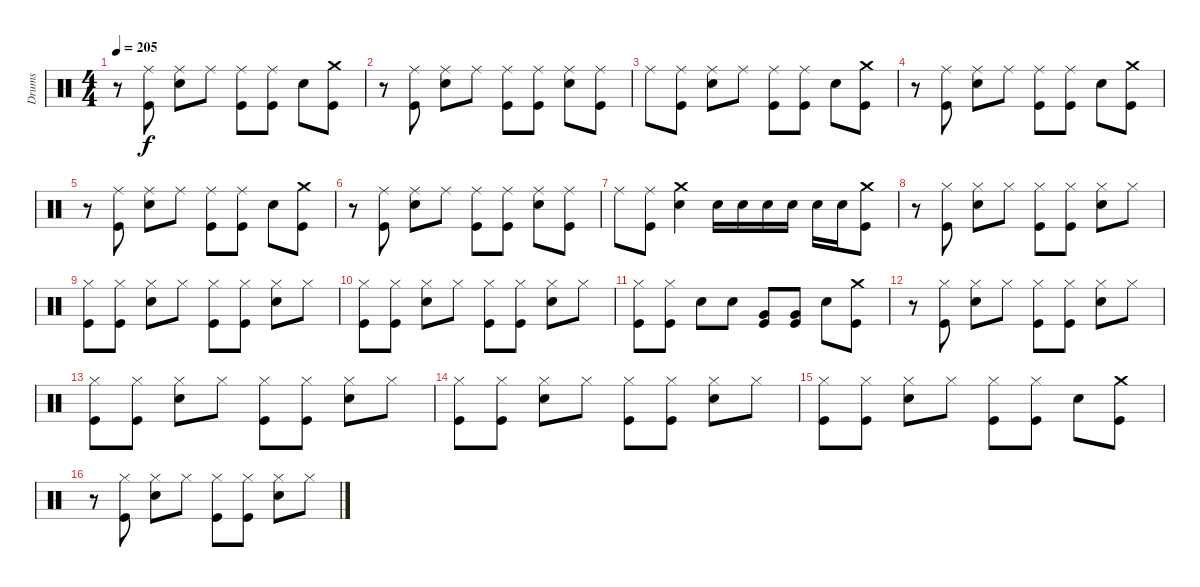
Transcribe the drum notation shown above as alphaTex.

\track ("Drums" "Drums") {instrument percussion}
\staff {score}
\articulation defaults
\ts (4 4)
\tempo 205
\clef neutral
\ks c
r.8{dy f} ("Ride (middle)" "Kick (hit)").8 ("Ride (middle)" "Electric Snare (hit)").8 "Ride (middle)".8 ("Ride (middle)" "Kick (hit)").8 ("Ride (middle)" "Kick (hit)").8 "Electric Snare (hit)".8 ("Crash medium (hit)" "Kick (hit)").8 |
r.8 ("Ride (middle)" "Kick (hit)").8 ("Ride (middle)" "Electric Snare (hit)").8 "Ride (middle)".8 ("Ride (middle)" "Kick (hit)").8 ("Ride (middle)" "Kick (hit)").8 ("Ride (middle)" "Electric Snare (hit)").8 ("Ride (middle)" "Kick (hit)").8 |
"Ride (middle)".8 ("Ride (middle)" "Kick (hit)").8 ("Ride (middle)" "Electric Snare (hit)").8 "Ride (middle)".8 ("Ride (middle)" "Kick (hit)").8 ("Ride (middle)" "Kick (hit)").8 "Electric Snare (hit)".8 ("Crash medium (hit)" "Kick (hit)").8 |
r.8 ("Ride (middle)" "Kick (hit)").8 ("Ride (middle)" "Electric Snare (hit)").8 "Ride (middle)".8 ("Ride (middle)" "Kick (hit)").8 ("Ride (middle)" "Kick (hit)").8 "Electric Snare (hit)".8 ("Crash medium (hit)" "Kick (hit)").8 |
r.8 ("Ride (middle)" "Kick (hit)").8 ("Ride (middle)" "Electric Snare (hit)").8 "Ride (middle)".8 ("Ride (middle)" "Kick (hit)").8 ("Ride (middle)" "Kick (hit)").8 "Electric Snare (hit)".8 ("Crash medium (hit)" "Kick (hit)").8 |
r.8 ("Ride (middle)" "Kick (hit)").8 ("Ride (middle)" "Electric Snare (hit)").8 "Ride (middle)".8 ("Ride (middle)" "Kick (hit)").8 ("Ride (middle)" "Kick (hit)").8 ("Ride (middle)" "Electric Snare (hit)").8 ("Ride (middle)" "Kick (hit)").8 |
"Ride (middle)".8 ("Ride (middle)" "Kick (hit)").8 ("Crash medium (hit)" "Electric Snare (hit)").4 "Electric Snare (hit)".16 "Electric Snare (hit)".16 "Electric Snare (hit)".16 "Electric Snare (hit)".16 "Electric Snare (hit)".16 "Electric Snare (hit)".16 ("Crash medium (hit)" "Kick (hit)").8 |
r.8 ("Hi-Hat (closed)" "Kick (hit)").8 ("Hi-Hat (closed)" "Electric Snare (hit)").8 "Hi-Hat (closed)".8 ("Hi-Hat (closed)" "Kick (hit)").8 ("Hi-Hat (closed)" "Kick (hit)").8 ("Hi-Hat (closed)" "Electric Snare (hit)").8 "Hi-Hat (closed)".8 |
("Hi-Hat (closed)" "Kick (hit)").8 ("Hi-Hat (closed)" "Kick (hit)").8 ("Hi-Hat (closed)" "Electric Snare (hit)").8 "Hi-Hat (closed)".8 ("Hi-Hat (closed)" "Kick (hit)").8 ("Hi-Hat (closed)" "Kick (hit)").8 ("Hi-Hat (closed)" "Electric Snare (hit)").8 "Hi-Hat (closed)".8 |
("Hi-Hat (closed)" "Kick (hit)").8 ("Hi-Hat (closed)" "Kick (hit)").8 ("Hi-Hat (closed)" "Electric Snare (hit)").8 "Hi-Hat (closed)".8 ("Hi-Hat (closed)" "Kick (hit)").8 ("Hi-Hat (closed)" "Kick (hit)").8 ("Hi-Hat (closed)" "Electric Snare (hit)").8 "Hi-Hat (closed)".8 |
("Hi-Hat (closed)" "Kick (hit)").8 ("Hi-Hat (closed)" "Kick (hit)").8 "Electric Snare (hit)".8 "Electric Snare (hit)".8 ("Very Low Tom (hit)" "Kick (hit)").8 ("Very Low Tom (hit)" "Kick (hit)").8 "Electric Snare (hit)".8 ("Crash medium (hit)" "Kick (hit)").8 |
r.8 ("Hi-Hat (closed)" "Kick (hit)").8 ("Hi-Hat (closed)" "Electric Snare (hit)").8 "Hi-Hat (closed)".8 ("Hi-Hat (closed)" "Kick (hit)").8 ("Hi-Hat (closed)" "Kick (hit)").8 ("Hi-Hat (closed)" "Electric Snare (hit)").8 "Hi-Hat (closed)".8 |
("Hi-Hat (closed)" "Kick (hit)").8 ("Hi-Hat (closed)" "Kick (hit)").8 ("Hi-Hat (closed)" "Electric Snare (hit)").8 "Hi-Hat (closed)".8 ("Hi-Hat (closed)" "Kick (hit)").8 ("Hi-Hat (closed)" "Kick (hit)").8 ("Hi-Hat (closed)" "Electric Snare (hit)").8 "Hi-Hat (closed)".8 |
("Hi-Hat (closed)" "Kick (hit)").8 ("Hi-Hat (closed)" "Kick (hit)").8 ("Hi-Hat (closed)" "Electric Snare (hit)").8 "Hi-Hat (closed)".8 ("Hi-Hat (closed)" "Kick (hit)").8 ("Hi-Hat (closed)" "Kick (hit)").8 ("Hi-Hat (closed)" "Electric Snare (hit)").8 "Hi-Hat (closed)".8 |
("Hi-Hat (closed)" "Kick (hit)").8 ("Hi-Hat (closed)" "Kick (hit)").8 ("Hi-Hat (closed)" "Electric Snare (hit)").8 "Hi-Hat (closed)".8 ("Hi-Hat (closed)" "Kick (hit)").8 ("Hi-Hat (closed)" "Kick (hit)").8 "Electric Snare (hit)".8 ("Crash medium (hit)" "Kick (hit)").8 |
r.8 ("Hi-Hat (closed)" "Kick (hit)").8 ("Hi-Hat (closed)" "Electric Snare (hit)").8 "Hi-Hat (closed)".8 ("Hi-Hat (closed)" "Kick (hit)").8 ("Hi-Hat (closed)" "Kick (hit)").8 ("Hi-Hat (closed)" "Electric Snare (hit)").8 "Hi-Hat (closed)".8
